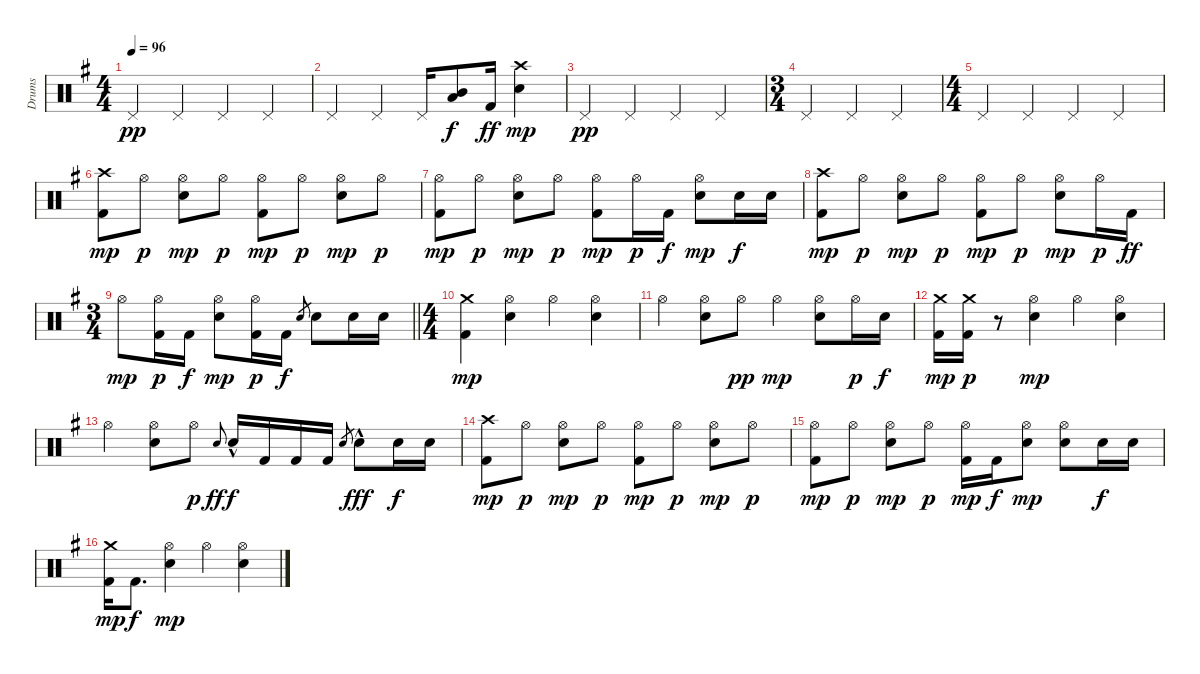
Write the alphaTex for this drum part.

\track ("Drums" "Drums") {instrument percussion}
\staff {score}
\articulation defaults
\ts (4 4)
\tempo 96
\clef neutral
\ks g "Pedal Hi-Hat (hit)".4{dy pp} "Pedal Hi-Hat (hit)".4 "Pedal Hi-Hat (hit)".4 "Pedal Hi-Hat (hit)".4
|
"Pedal Hi-Hat (hit)".4 "Pedal Hi-Hat (hit)".4 "Pedal Hi-Hat (hit)".16 ("Mid Tom (hit)" "Low Tom (hit)").8{dy f} "Kick (hit) 2".16{dy ff} ("Electric Snare (hit)" "Crash high (hit)").4{dy mp} |
"Pedal Hi-Hat (hit)".4{dy pp} "Pedal Hi-Hat (hit)".4 "Pedal Hi-Hat (hit)".4 "Pedal Hi-Hat (hit)".4 |
\ts (3 4)
"Pedal Hi-Hat (hit)".4 "Pedal Hi-Hat (hit)".4 "Pedal Hi-Hat (hit)".4 |
\ts (4 4)
"Pedal Hi-Hat (hit)".4 "Pedal Hi-Hat (hit)".4 "Pedal Hi-Hat (hit)".4 "Pedal Hi-Hat (hit)".4 |
("Crash high (hit)" "Kick (hit) 2").8{dy mp} "Hi-Hat (open)".8{dy p} ("Hi-Hat (open)" "Electric Snare (hit)").8{dy mp} "Hi-Hat (open)".8{dy p} ("Hi-Hat (open)" "Kick (hit) 2").8{dy mp} "Hi-Hat (open)".8{dy p} ("Hi-Hat (open)" "Electric Snare (hit)").8{dy mp} "Hi-Hat (open)".8{dy p} |
("Hi-Hat (open)" "Kick (hit) 2").8{dy mp} "Hi-Hat (open)".8{dy p} ("Hi-Hat (open)" "Electric Snare (hit)").8{dy mp} "Hi-Hat (open)".8{dy p} ("Hi-Hat (open)" "Kick (hit) 2").8{dy mp} "Hi-Hat (open)".16{dy p} "Kick (hit) 2".16{dy f} ("Hi-Hat (open)" "Electric Snare (hit)").8{dy mp} "Electric Snare (hit)".16{dy f} "Electric Snare (hit)".16 |
("Crash high (hit)" "Kick (hit) 2").8{dy mp} "Hi-Hat (open)".8{dy p} ("Hi-Hat (open)" "Electric Snare (hit)").8{dy mp} "Hi-Hat (open)".8{dy p} ("Hi-Hat (open)" "Kick (hit) 2").8{dy mp} "Hi-Hat (open)".8{dy p} ("Hi-Hat (open)" "Electric Snare (hit)").8{dy mp} "Hi-Hat (open)".16{dy p} "Kick (hit) 2".16{dy ff} |
\ts (3 4)
\barLineRight lightlight "Hi-Hat (open)".8{dy mp}
("Hi-Hat (open)" "Kick (hit) 2").16{dy p} "Kick (hit) 2".16{dy f} ("Hi-Hat (open)" "Electric Snare (hit)").8{dy mp} ("Hi-Hat (open)" "Kick (hit) 2").16{dy p} "Kick (hit) 2".16{dy f} "Electric Snare (hit)".8{gr} "Electric Snare (hit)".8 "Electric Snare (hit)".16 "Electric Snare (hit)".16 |
\ts (4 4)
("Kick (hit) 2" "Crash medium (hit)").4{dy mp} ("Hi-Hat (open)" "Electric Snare (hit)").4 "Hi-Hat (open)".4 ("Hi-Hat (open)" "Electric Snare (hit)").4 |
"Hi-Hat (open)".4 ("Hi-Hat (open)" "Electric Snare (hit)").8 "Hi-Hat (open)".8{dy pp} "Hi-Hat (open)".4{dy mp} ("Hi-Hat (open)" "Electric Snare (hit)").8 "Hi-Hat (open)".16{dy p} "Electric Snare (hit)".16{dy f} |
("Kick (hit) 2" "Crash medium (hit)").16{dy mp} ("Kick (hit) 2" "Crash medium (hit)").16{dy p} r.8 ("Hi-Hat (open)" "Electric Snare (hit)").4{dy mp} "Hi-Hat (open)".4 ("Hi-Hat (open)" "Electric Snare (hit)").4 |
"Hi-Hat (open)".4 ("Hi-Hat (open)" "Electric Snare (hit)").8 "Hi-Hat (open)".8{dy p} "Electric Snare (hit)".8{gr onbeat dy ff} "Electric Snare (hit)"{hac}.16{dy f} "Kick (hit) 2".16 "Kick (hit) 2".16 "Kick (hit) 2".16 "Electric Snare (hit)".8{gr} "Electric Snare (hit)"{hac}.8{dy fff} "Electric Snare (hit)".16{dy f} "Electric Snare (hit)".16 |
("Crash high (hit)" "Kick (hit) 2").8{dy mp} "Hi-Hat (open)".8{dy p} ("Hi-Hat (open)" "Electric Snare (hit)").8{dy mp} "Hi-Hat (open)".8{dy p} ("Hi-Hat (open)" "Kick (hit) 2").8{dy mp} "Hi-Hat (open)".8{dy p} ("Hi-Hat (open)" "Electric Snare (hit)").8{dy mp} "Hi-Hat (open)".8{dy p} |
("Hi-Hat (open)" "Kick (hit) 2").8{dy mp} "Hi-Hat (open)".8{dy p} ("Hi-Hat (open)" "Electric Snare (hit)").8{dy mp} "Hi-Hat (open)".8{dy p} ("Hi-Hat (open)" "Kick (hit) 2").16{dy mp} "Kick (hit) 2".16{dy f} ("Hi-Hat (open)" "Electric Snare (hit)").8{dy mp} ("Electric Snare (hit)" "Hi-Hat (open)").8 "Electric Snare (hit)".16{dy f} "Electric Snare (hit)".16 |
("Kick (hit) 2" "Crash medium (hit)").16{dy mp} "Kick (hit) 2".8{d dy f} ("Hi-Hat (open)" "Electric Snare (hit)").4{dy mp} "Hi-Hat (open)".4 ("Hi-Hat (open)" "Electric Snare (hit)").4
